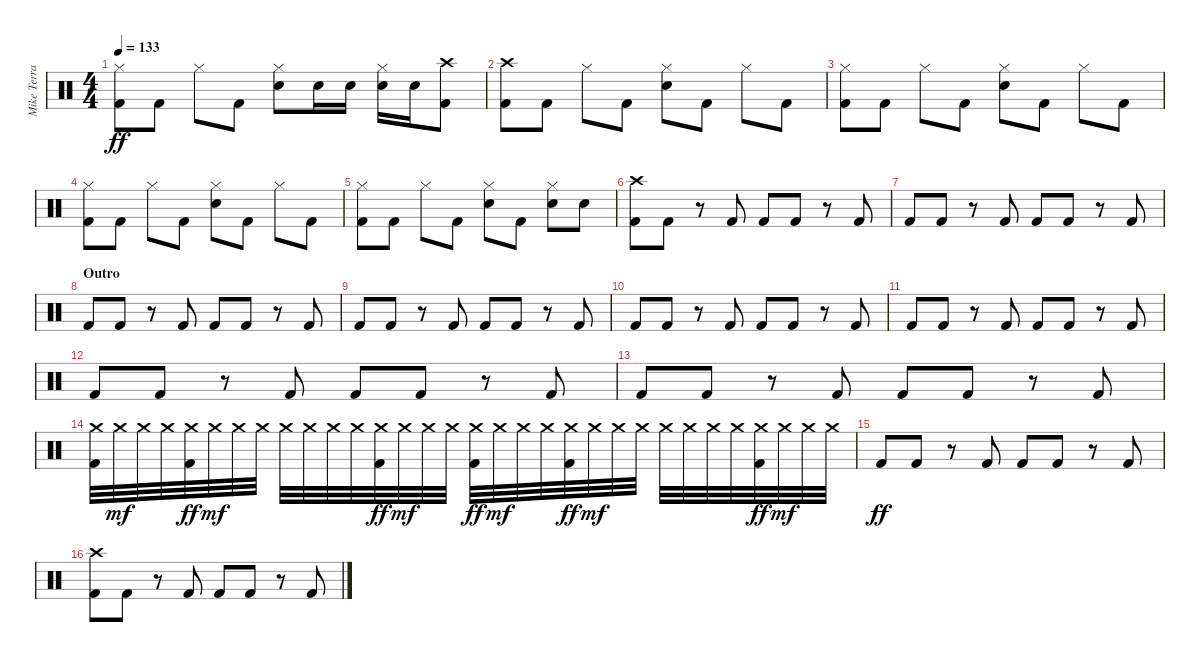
\track ("Mike Terrana" "Mike Terra") {instrument percussion}
\staff {score}
\articulation defaults
\ts (4 4)
\tempo 133
\clef neutral
\ks c
("Hi-Hat (closed)" "Kick (hit) 2").8{dy ff} "Kick (hit) 2".8 "Hi-Hat (closed)".8 "Kick (hit) 2".8 ("Hi-Hat (closed)" "Snare (hit) 2").8 "Snare (hit) 2".16 "Snare (hit) 2".16 ("Hi-Hat (closed)" "Snare (hit) 2").16 "Snare (hit) 2".16 ("Crash high (hit)" "Kick (hit) 2").8 |
("Crash high (hit)" "Kick (hit) 2").8 "Kick (hit) 2".8 "Hi-Hat (closed)".8 "Kick (hit) 2".8 ("Hi-Hat (closed)" "Snare (hit) 2").8 "Kick (hit) 2".8 "Hi-Hat (closed)".8 "Kick (hit) 2".8 |
("Hi-Hat (closed)" "Kick (hit) 2").8 "Kick (hit) 2".8 "Hi-Hat (closed)".8 "Kick (hit) 2".8 ("Hi-Hat (closed)" "Snare (hit) 2").8 "Kick (hit) 2".8 "Hi-Hat (closed)".8 "Kick (hit) 2".8 |
("Hi-Hat (closed)" "Kick (hit) 2").8 "Kick (hit) 2".8 "Hi-Hat (closed)".8 "Kick (hit) 2".8 ("Hi-Hat (closed)" "Snare (hit) 2").8 "Kick (hit) 2".8 "Hi-Hat (closed)".8 "Kick (hit) 2".8 |
("Hi-Hat (closed)" "Kick (hit) 2").8 "Kick (hit) 2".8 "Hi-Hat (closed)".8 "Kick (hit) 2".8 ("Hi-Hat (closed)" "Snare (hit) 2").8 "Kick (hit) 2".8 ("Hi-Hat (closed)" "Snare (hit) 2").8 "Snare (hit) 2".8 |
("Crash high (hit)" "Kick (hit) 2").8 "Kick (hit) 2".8 r.8 "Kick (hit) 2".8 "Kick (hit) 2".8 "Kick (hit) 2".8 r.8 "Kick (hit) 2".8 |
"Kick (hit) 2".8 "Kick (hit) 2".8 r.8 "Kick (hit) 2".8 "Kick (hit) 2".8 "Kick (hit) 2".8 r.8 "Kick (hit) 2".8 |
\section ("" "Outro")
"Kick (hit) 2".8 "Kick (hit) 2".8 r.8 "Kick (hit) 2".8 "Kick (hit) 2".8 "Kick (hit) 2".8 r.8 "Kick (hit) 2".8 |
"Kick (hit) 2".8 "Kick (hit) 2".8 r.8 "Kick (hit) 2".8 "Kick (hit) 2".8 "Kick (hit) 2".8 r.8 "Kick (hit) 2".8 |
"Kick (hit) 2".8 "Kick (hit) 2".8 r.8 "Kick (hit) 2".8 "Kick (hit) 2".8 "Kick (hit) 2".8 r.8 "Kick (hit) 2".8 |
"Kick (hit) 2".8 "Kick (hit) 2".8 r.8 "Kick (hit) 2".8 "Kick (hit) 2".8 "Kick (hit) 2".8 r.8 "Kick (hit) 2".8 |
"Kick (hit) 2".8 "Kick (hit) 2".8 r.8 "Kick (hit) 2".8 "Kick (hit) 2".8 "Kick (hit) 2".8 r.8 "Kick (hit) 2".8 |
"Kick (hit) 2".8 "Kick (hit) 2".8 r.8 "Kick (hit) 2".8 "Kick (hit) 2".8 "Kick (hit) 2".8 r.8 "Kick (hit) 2".8 |
("Crash medium (hit)" "Kick (hit) 2").32 "Crash medium (hit)".32{dy mf} "Crash medium (hit)".32 "Crash medium (hit)".32 ("Crash medium (hit)" "Kick (hit) 2").32{dy ff} "Crash medium (hit)".32{dy mf} "Crash medium (hit)".32 "Crash medium (hit)".32 "Crash medium (hit)".32 "Crash medium (hit)".32 "Crash medium (hit)".32 "Crash medium (hit)".32 ("Crash medium (hit)" "Kick (hit) 2").32{dy ff} "Crash medium (hit)".32{dy mf} "Crash medium (hit)".32 "Crash medium (hit)".32 ("Crash medium (hit)" "Kick (hit) 2").32{dy ff} "Crash medium (hit)".32{dy mf} "Crash medium (hit)".32 "Crash medium (hit)".32 ("Crash medium (hit)" "Kick (hit) 2").32{dy ff} "Crash medium (hit)".32{dy mf} "Crash medium (hit)".32 "Crash medium (hit)".32 "Crash medium (hit)".32 "Crash medium (hit)".32 "Crash medium (hit)".32 "Crash medium (hit)".32 ("Crash medium (hit)" "Kick (hit) 2").32{dy ff} "Crash medium (hit)".32{dy mf} "Crash medium (hit)".32 "Crash medium (hit)".32 |
"Kick (hit) 2".8{dy ff} "Kick (hit) 2".8 r.8 "Kick (hit) 2".8 "Kick (hit) 2".8 "Kick (hit) 2".8 r.8 "Kick (hit) 2".8 |
("Crash high (hit)" "Kick (hit) 2").8 "Kick (hit) 2".8 r.8 "Kick (hit) 2".8 "Kick (hit) 2".8 "Kick (hit) 2".8 r.8 "Kick (hit) 2".8
